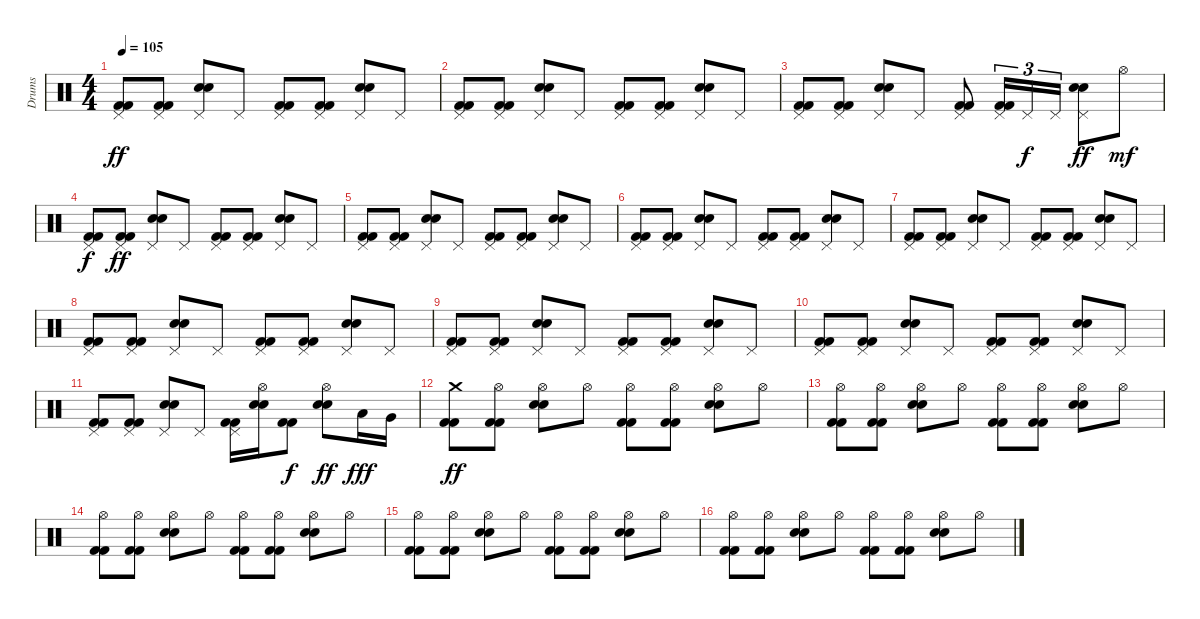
\track ("Drums" "Drums") {instrument percussion}
\staff {score}
\articulation defaults
\ts (4 4)
\tempo 105
\clef neutral
\ks c
("Pedal Hi-Hat (hit)" "Kick (hit) 2" "Kick (hit) 2").8{dy ff} ("Pedal Hi-Hat (hit)" "Kick (hit) 2" "Kick (hit) 2").8 ("Pedal Hi-Hat (hit)" "Electric Snare (hit)" "Snare (hit) 2").8 "Pedal Hi-Hat (hit)".8 ("Pedal Hi-Hat (hit)" "Kick (hit) 2" "Kick (hit) 2").8 ("Pedal Hi-Hat (hit)" "Kick (hit) 2" "Kick (hit) 2").8 ("Pedal Hi-Hat (hit)" "Electric Snare (hit)" "Snare (hit) 2").8 "Pedal Hi-Hat (hit)".8 |
("Pedal Hi-Hat (hit)" "Kick (hit) 2" "Kick (hit) 2").8 ("Pedal Hi-Hat (hit)" "Kick (hit) 2" "Kick (hit) 2").8 ("Pedal Hi-Hat (hit)" "Electric Snare (hit)" "Snare (hit) 2").8 "Pedal Hi-Hat (hit)".8 ("Pedal Hi-Hat (hit)" "Kick (hit) 2" "Kick (hit) 2").8 ("Pedal Hi-Hat (hit)" "Kick (hit) 2" "Kick (hit) 2").8 ("Pedal Hi-Hat (hit)" "Electric Snare (hit)" "Snare (hit) 2").8 "Pedal Hi-Hat (hit)".8 |
("Pedal Hi-Hat (hit)" "Kick (hit) 2" "Kick (hit) 2").8 ("Pedal Hi-Hat (hit)" "Kick (hit) 2" "Kick (hit) 2").8 ("Pedal Hi-Hat (hit)" "Electric Snare (hit)" "Snare (hit) 2").8 "Pedal Hi-Hat (hit)".8 ("Pedal Hi-Hat (hit)" "Kick (hit) 2" "Kick (hit) 2").8 ("Pedal Hi-Hat (hit)" "Kick (hit) 2" "Kick (hit) 2").16{tu (3 2)} "Pedal Hi-Hat (hit)".16{tu (3 2) dy f} "Pedal Hi-Hat (hit)".16{tu (3 2)} ("Pedal Hi-Hat (hit)" "Electric Snare (hit)" "Snare (hit) 2").8{dy ff} "Hi-Hat (open)".8{dy mf} |
("Pedal Hi-Hat (hit)" "Kick (hit) 2" "Kick (hit) 2").8{dy f} ("Pedal Hi-Hat (hit)" "Kick (hit) 2" "Kick (hit) 2").8{dy ff} ("Pedal Hi-Hat (hit)" "Electric Snare (hit)" "Snare (hit) 2").8 "Pedal Hi-Hat (hit)".8 ("Pedal Hi-Hat (hit)" "Kick (hit) 2" "Kick (hit) 2").8 ("Pedal Hi-Hat (hit)" "Kick (hit) 2" "Kick (hit) 2").8 ("Pedal Hi-Hat (hit)" "Electric Snare (hit)" "Snare (hit) 2").8 "Pedal Hi-Hat (hit)".8 |
("Pedal Hi-Hat (hit)" "Kick (hit) 2" "Kick (hit) 2").8 ("Pedal Hi-Hat (hit)" "Kick (hit) 2" "Kick (hit) 2").8 ("Pedal Hi-Hat (hit)" "Electric Snare (hit)" "Snare (hit) 2").8 "Pedal Hi-Hat (hit)".8 ("Pedal Hi-Hat (hit)" "Kick (hit) 2" "Kick (hit) 2").8 ("Pedal Hi-Hat (hit)" "Kick (hit) 2" "Kick (hit) 2").8 ("Pedal Hi-Hat (hit)" "Electric Snare (hit)" "Snare (hit) 2").8 "Pedal Hi-Hat (hit)".8 |
("Pedal Hi-Hat (hit)" "Kick (hit) 2" "Kick (hit) 2").8 ("Pedal Hi-Hat (hit)" "Kick (hit) 2" "Kick (hit) 2").8 ("Pedal Hi-Hat (hit)" "Electric Snare (hit)" "Snare (hit) 2").8 "Pedal Hi-Hat (hit)".8 ("Pedal Hi-Hat (hit)" "Kick (hit) 2" "Kick (hit) 2").8 ("Pedal Hi-Hat (hit)" "Kick (hit) 2" "Kick (hit) 2").8 ("Pedal Hi-Hat (hit)" "Electric Snare (hit)" "Snare (hit) 2").8 "Pedal Hi-Hat (hit)".8 |
("Pedal Hi-Hat (hit)" "Kick (hit) 2" "Kick (hit) 2").8 ("Pedal Hi-Hat (hit)" "Kick (hit) 2" "Kick (hit) 2").8 ("Pedal Hi-Hat (hit)" "Electric Snare (hit)" "Snare (hit) 2").8 "Pedal Hi-Hat (hit)".8 ("Pedal Hi-Hat (hit)" "Kick (hit) 2" "Kick (hit) 2").8 ("Pedal Hi-Hat (hit)" "Kick (hit) 2" "Kick (hit) 2").8 ("Pedal Hi-Hat (hit)" "Electric Snare (hit)" "Snare (hit) 2").8 "Pedal Hi-Hat (hit)".8 |
("Pedal Hi-Hat (hit)" "Kick (hit) 2" "Kick (hit) 2").8 ("Pedal Hi-Hat (hit)" "Kick (hit) 2" "Kick (hit) 2").8 ("Pedal Hi-Hat (hit)" "Electric Snare (hit)" "Snare (hit) 2").8 "Pedal Hi-Hat (hit)".8 ("Pedal Hi-Hat (hit)" "Kick (hit) 2" "Kick (hit) 2").8 ("Pedal Hi-Hat (hit)" "Kick (hit) 2" "Kick (hit) 2").8 ("Pedal Hi-Hat (hit)" "Electric Snare (hit)" "Snare (hit) 2").8 "Pedal Hi-Hat (hit)".8 |
("Pedal Hi-Hat (hit)" "Kick (hit) 2" "Kick (hit) 2").8 ("Pedal Hi-Hat (hit)" "Kick (hit) 2" "Kick (hit) 2").8 ("Pedal Hi-Hat (hit)" "Electric Snare (hit)" "Snare (hit) 2").8 "Pedal Hi-Hat (hit)".8 ("Pedal Hi-Hat (hit)" "Kick (hit) 2" "Kick (hit) 2").8 ("Pedal Hi-Hat (hit)" "Kick (hit) 2" "Kick (hit) 2").8 ("Pedal Hi-Hat (hit)" "Electric Snare (hit)" "Snare (hit) 2").8 "Pedal Hi-Hat (hit)".8 |
("Pedal Hi-Hat (hit)" "Kick (hit) 2" "Kick (hit) 2").8 ("Pedal Hi-Hat (hit)" "Kick (hit) 2" "Kick (hit) 2").8 ("Pedal Hi-Hat (hit)" "Electric Snare (hit)" "Snare (hit) 2").8 "Pedal Hi-Hat (hit)".8 ("Pedal Hi-Hat (hit)" "Kick (hit) 2" "Kick (hit) 2").8 ("Pedal Hi-Hat (hit)" "Kick (hit) 2" "Kick (hit) 2").8 ("Pedal Hi-Hat (hit)" "Electric Snare (hit)" "Snare (hit) 2").8 "Pedal Hi-Hat (hit)".8 |
("Pedal Hi-Hat (hit)" "Kick (hit) 2" "Kick (hit) 2").8 ("Pedal Hi-Hat (hit)" "Kick (hit) 2" "Kick (hit) 2").8 ("Pedal Hi-Hat (hit)" "Electric Snare (hit)" "Snare (hit) 2").8 "Pedal Hi-Hat (hit)".8 ("Pedal Hi-Hat (hit)" "Kick (hit) 2" "Kick (hit) 2").16 ("Hi-Hat (open)" "Electric Snare (hit)" "Snare (hit) 2").16 ("Kick (hit) 2" "Kick (hit) 2").8{dy f} ("Hi-Hat (open)" "Electric Snare (hit)" "Snare (hit) 2").8{dy ff} "Low Tom (hit)".16{dy fff} "Very Low Tom (hit)".16 |
("Crash medium (hit)" "Kick (hit) 2" "Kick (hit) 2").8{dy ff} ("Hi-Hat (open)" "Kick (hit) 2" "Kick (hit) 2").8 ("Hi-Hat (open)" "Electric Snare (hit)" "Snare (hit) 2").8 "Hi-Hat (open)".8 ("Hi-Hat (open)" "Kick (hit) 2" "Kick (hit) 2").8 ("Hi-Hat (open)" "Kick (hit) 2" "Kick (hit) 2").8 ("Hi-Hat (open)" "Electric Snare (hit)" "Snare (hit) 2").8 "Hi-Hat (open)".8 |
("Hi-Hat (open)" "Kick (hit) 2" "Kick (hit) 2").8 ("Hi-Hat (open)" "Kick (hit) 2" "Kick (hit) 2").8 ("Hi-Hat (open)" "Electric Snare (hit)" "Snare (hit) 2").8 "Hi-Hat (open)".8 ("Hi-Hat (open)" "Kick (hit) 2" "Kick (hit) 2").8 ("Hi-Hat (open)" "Kick (hit) 2" "Kick (hit) 2").8 ("Hi-Hat (open)" "Electric Snare (hit)" "Snare (hit) 2").8 "Hi-Hat (open)".8 |
("Hi-Hat (open)" "Kick (hit) 2" "Kick (hit) 2").8 ("Hi-Hat (open)" "Kick (hit) 2" "Kick (hit) 2").8 ("Hi-Hat (open)" "Electric Snare (hit)" "Snare (hit) 2").8 "Hi-Hat (open)".8 ("Hi-Hat (open)" "Kick (hit) 2" "Kick (hit) 2").8 ("Hi-Hat (open)" "Kick (hit) 2" "Kick (hit) 2").8 ("Hi-Hat (open)" "Electric Snare (hit)" "Snare (hit) 2").8 "Hi-Hat (open)".8 |
("Hi-Hat (open)" "Kick (hit) 2" "Kick (hit) 2").8 ("Hi-Hat (open)" "Kick (hit) 2" "Kick (hit) 2").8 ("Hi-Hat (open)" "Electric Snare (hit)" "Snare (hit) 2").8 "Hi-Hat (open)".8 ("Hi-Hat (open)" "Kick (hit) 2" "Kick (hit) 2").8 ("Hi-Hat (open)" "Kick (hit) 2" "Kick (hit) 2").8 ("Hi-Hat (open)" "Electric Snare (hit)" "Snare (hit) 2").8 "Hi-Hat (open)".8 |
("Hi-Hat (open)" "Kick (hit) 2" "Kick (hit) 2").8 ("Hi-Hat (open)" "Kick (hit) 2" "Kick (hit) 2").8 ("Hi-Hat (open)" "Electric Snare (hit)" "Snare (hit) 2").8 "Hi-Hat (open)".8 ("Hi-Hat (open)" "Kick (hit) 2" "Kick (hit) 2").8 ("Hi-Hat (open)" "Kick (hit) 2" "Kick (hit) 2").8 ("Hi-Hat (open)" "Electric Snare (hit)" "Snare (hit) 2").8 "Hi-Hat (open)".8
